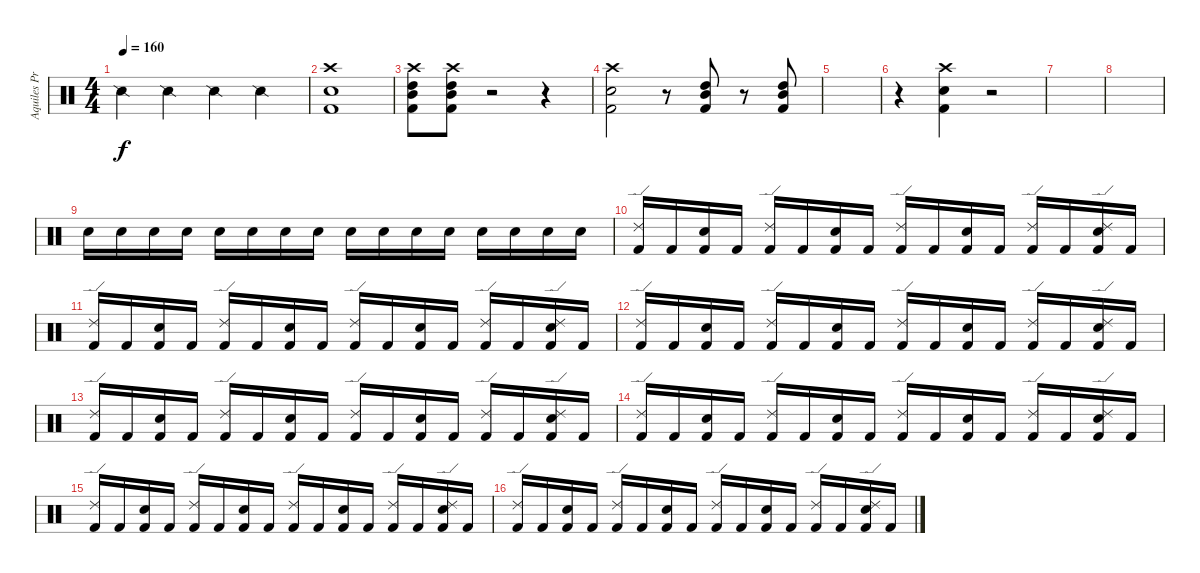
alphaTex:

\track ("Aquiles Priester" "Aquiles Pr") {instrument percussion}
\staff {score}
\articulation defaults
\ts (4 4)
\tempo 160
\clef neutral
\ks c "Snare (side stick) 2".4{dy f} "Snare (side stick) 2".4 "Snare (side stick) 2".4 "Snare (side stick) 2".4
|
("Crash high (hit)" "Electric Snare (hit)" "Kick (hit) 2").1 |
("Crash high (hit)" "Mid Tom (hit)" "High Tom (hit)" "Kick (hit) 2").8 ("Crash high (hit)" "Mid Tom (hit)" "High Tom (hit)" "Kick (hit) 2").8 r.2 r.4 |
("Crash high (hit)" "Electric Snare (hit)" "Kick (hit) 2").2 r.8 ("Mid Tom (hit)" "High Tom (hit)" "Kick (hit) 2").8 r.8 ("Mid Tom (hit)" "High Tom (hit)" "Kick (hit) 2").8 |
|
r.4 ("Crash high (hit)" "Electric Snare (hit)" "Kick (hit) 2").4 r.2 |
|
|
"Electric Snare (hit)".16 "Electric Snare (hit)".16 "Electric Snare (hit)".16 "Electric Snare (hit)".16 "Electric Snare (hit)".16 "Electric Snare (hit)".16 "Electric Snare (hit)".16 "Electric Snare (hit)".16 "Electric Snare (hit)".16 "Electric Snare (hit)".16 "Electric Snare (hit)".16 "Electric Snare (hit)".16 "Electric Snare (hit)".16 "Electric Snare (hit)".16 "Electric Snare (hit)".16 "Electric Snare (hit)".16 |
("Ride (edge) 2" "Kick (hit) 2").16 "Kick (hit) 2".16 ("Electric Snare (hit)" "Kick (hit) 2").16 "Kick (hit) 2".16 ("Ride (edge) 2" "Kick (hit) 2").16 "Kick (hit) 2".16 ("Electric Snare (hit)" "Kick (hit) 2").16 "Kick (hit) 2".16 ("Ride (edge) 2" "Kick (hit) 2").16 "Kick (hit) 2".16 ("Electric Snare (hit)" "Kick (hit) 2").16 "Kick (hit) 2".16 ("Ride (edge) 2" "Kick (hit) 2").16 "Kick (hit) 2".16 ("Ride (edge) 2" "Electric Snare (hit)" "Kick (hit) 2").16 "Kick (hit) 2".16 |
("Ride (edge) 2" "Kick (hit) 2").16 "Kick (hit) 2".16 ("Electric Snare (hit)" "Kick (hit) 2").16 "Kick (hit) 2".16 ("Ride (edge) 2" "Kick (hit) 2").16 "Kick (hit) 2".16 ("Electric Snare (hit)" "Kick (hit) 2").16 "Kick (hit) 2".16 ("Ride (edge) 2" "Kick (hit) 2").16 "Kick (hit) 2".16 ("Electric Snare (hit)" "Kick (hit) 2").16 "Kick (hit) 2".16 ("Ride (edge) 2" "Kick (hit) 2").16 "Kick (hit) 2".16 ("Ride (edge) 2" "Electric Snare (hit)" "Kick (hit) 2").16 "Kick (hit) 2".16 |
("Ride (edge) 2" "Kick (hit) 2").16 "Kick (hit) 2".16 ("Electric Snare (hit)" "Kick (hit) 2").16 "Kick (hit) 2".16 ("Ride (edge) 2" "Kick (hit) 2").16 "Kick (hit) 2".16 ("Electric Snare (hit)" "Kick (hit) 2").16 "Kick (hit) 2".16 ("Ride (edge) 2" "Kick (hit) 2").16 "Kick (hit) 2".16 ("Electric Snare (hit)" "Kick (hit) 2").16 "Kick (hit) 2".16 ("Ride (edge) 2" "Kick (hit) 2").16 "Kick (hit) 2".16 ("Ride (edge) 2" "Electric Snare (hit)" "Kick (hit) 2").16 "Kick (hit) 2".16 |
("Ride (edge) 2" "Kick (hit) 2").16 "Kick (hit) 2".16 ("Electric Snare (hit)" "Kick (hit) 2").16 "Kick (hit) 2".16 ("Ride (edge) 2" "Kick (hit) 2").16 "Kick (hit) 2".16 ("Electric Snare (hit)" "Kick (hit) 2").16 "Kick (hit) 2".16 ("Ride (edge) 2" "Kick (hit) 2").16 "Kick (hit) 2".16 ("Electric Snare (hit)" "Kick (hit) 2").16 "Kick (hit) 2".16 ("Ride (edge) 2" "Kick (hit) 2").16 "Kick (hit) 2".16 ("Ride (edge) 2" "Electric Snare (hit)" "Kick (hit) 2").16 "Kick (hit) 2".16 |
("Ride (edge) 2" "Kick (hit) 2").16 "Kick (hit) 2".16 ("Electric Snare (hit)" "Kick (hit) 2").16 "Kick (hit) 2".16 ("Ride (edge) 2" "Kick (hit) 2").16 "Kick (hit) 2".16 ("Electric Snare (hit)" "Kick (hit) 2").16 "Kick (hit) 2".16 ("Ride (edge) 2" "Kick (hit) 2").16 "Kick (hit) 2".16 ("Electric Snare (hit)" "Kick (hit) 2").16 "Kick (hit) 2".16 ("Ride (edge) 2" "Kick (hit) 2").16 "Kick (hit) 2".16 ("Ride (edge) 2" "Electric Snare (hit)" "Kick (hit) 2").16 "Kick (hit) 2".16 |
("Ride (edge) 2" "Kick (hit) 2").16 "Kick (hit) 2".16 ("Electric Snare (hit)" "Kick (hit) 2").16 "Kick (hit) 2".16 ("Ride (edge) 2" "Kick (hit) 2").16 "Kick (hit) 2".16 ("Electric Snare (hit)" "Kick (hit) 2").16 "Kick (hit) 2".16 ("Ride (edge) 2" "Kick (hit) 2").16 "Kick (hit) 2".16 ("Electric Snare (hit)" "Kick (hit) 2").16 "Kick (hit) 2".16 ("Ride (edge) 2" "Kick (hit) 2").16 "Kick (hit) 2".16 ("Ride (edge) 2" "Electric Snare (hit)" "Kick (hit) 2").16 "Kick (hit) 2".16 |
("Ride (edge) 2" "Kick (hit) 2").16 "Kick (hit) 2".16 ("Electric Snare (hit)" "Kick (hit) 2").16 "Kick (hit) 2".16 ("Ride (edge) 2" "Kick (hit) 2").16 "Kick (hit) 2".16 ("Electric Snare (hit)" "Kick (hit) 2").16 "Kick (hit) 2".16 ("Ride (edge) 2" "Kick (hit) 2").16 "Kick (hit) 2".16 ("Electric Snare (hit)" "Kick (hit) 2").16 "Kick (hit) 2".16 ("Ride (edge) 2" "Kick (hit) 2").16 "Kick (hit) 2".16 ("Ride (edge) 2" "Electric Snare (hit)" "Kick (hit) 2").16 "Kick (hit) 2".16
